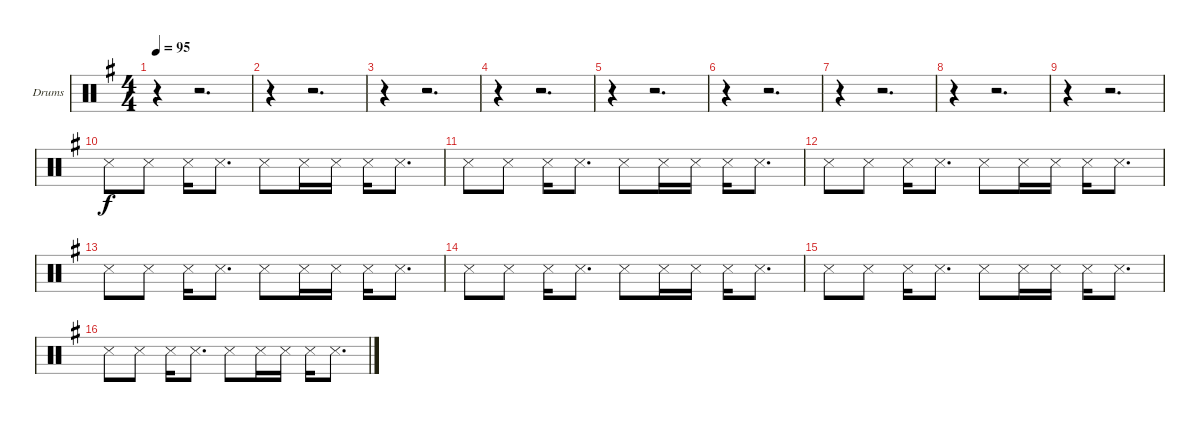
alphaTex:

\bracketExtendMode groupsimilarinstruments
\firstSystemTrackNameOrientation horizontal
\otherSystemsTrackNameOrientation horizontal
\track ("Drumkit" "Drums") {instrument percussion}
\staff {score}
\articulation defaults
\ts (4 4)
\tempo 95
\clef neutral
\ks g
r.4{dy f} r.2{d} |
r.4 r.2{d} |
r.4 r.2{d} |
r.4 r.2{d} |
r.4 r.2{d} |
r.4 r.2{d} |
r.4 r.2{d} |
r.4 r.2{d} |
r.4 r.2{d} |
"Snare (side stick) 3".8 "Snare (side stick) 3".8 "Snare (side stick) 3".16 "Snare (side stick) 3".8{d} "Snare (side stick) 3".8 "Snare (side stick) 3".16 "Snare (side stick) 3".16 "Snare (side stick) 3".16 "Snare (side stick) 3".8{d} |
"Snare (side stick) 3".8 "Snare (side stick) 3".8 "Snare (side stick) 3".16 "Snare (side stick) 3".8{d} "Snare (side stick) 3".8 "Snare (side stick) 3".16 "Snare (side stick) 3".16 "Snare (side stick) 3".16 "Snare (side stick) 3".8{d} |
"Snare (side stick) 3".8 "Snare (side stick) 3".8 "Snare (side stick) 3".16 "Snare (side stick) 3".8{d} "Snare (side stick) 3".8 "Snare (side stick) 3".16 "Snare (side stick) 3".16 "Snare (side stick) 3".16 "Snare (side stick) 3".8{d} |
"Snare (side stick) 3".8 "Snare (side stick) 3".8 "Snare (side stick) 3".16 "Snare (side stick) 3".8{d} "Snare (side stick) 3".8 "Snare (side stick) 3".16 "Snare (side stick) 3".16 "Snare (side stick) 3".16 "Snare (side stick) 3".8{d} |
"Snare (side stick) 3".8 "Snare (side stick) 3".8 "Snare (side stick) 3".16 "Snare (side stick) 3".8{d} "Snare (side stick) 3".8 "Snare (side stick) 3".16 "Snare (side stick) 3".16 "Snare (side stick) 3".16 "Snare (side stick) 3".8{d} |
"Snare (side stick) 3".8 "Snare (side stick) 3".8 "Snare (side stick) 3".16 "Snare (side stick) 3".8{d} "Snare (side stick) 3".8 "Snare (side stick) 3".16 "Snare (side stick) 3".16 "Snare (side stick) 3".16 "Snare (side stick) 3".8{d} |
"Snare (side stick) 3".8 "Snare (side stick) 3".8 "Snare (side stick) 3".16 "Snare (side stick) 3".8{d} "Snare (side stick) 3".8 "Snare (side stick) 3".16 "Snare (side stick) 3".16 "Snare (side stick) 3".16 "Snare (side stick) 3".8{d}
